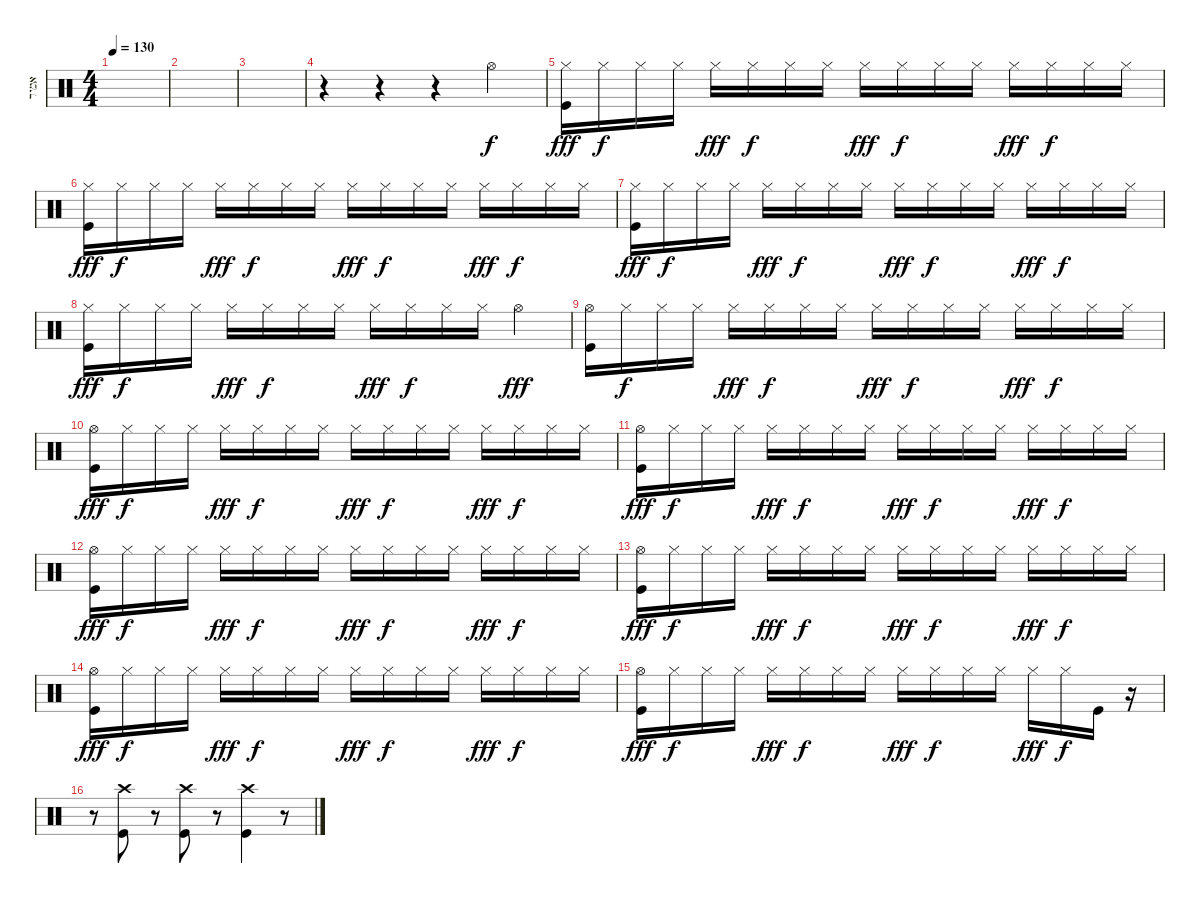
\track ("אמיר" "אמיר") {instrument percussion}
\staff {score}
\articulation defaults
\ts (4 4)
\tempo 130
\clef neutral
\ks c
|
|
|
r.4 r.4 r.4 "Hi-Hat (open)".4 |
("Hi-Hat (closed)" "Kick (hit)").16{dy fff} "Hi-Hat (closed)".16{dy f} "Hi-Hat (closed)".16 "Hi-Hat (closed)".16 "Hi-Hat (closed)".16{dy fff} "Hi-Hat (closed)".16{dy f} "Hi-Hat (closed)".16 "Hi-Hat (closed)".16 "Hi-Hat (closed)".16{dy fff} "Hi-Hat (closed)".16{dy f} "Hi-Hat (closed)".16 "Hi-Hat (closed)".16 "Hi-Hat (closed)".16{dy fff} "Hi-Hat (closed)".16{dy f} "Hi-Hat (closed)".16 "Hi-Hat (closed)".16 |
("Hi-Hat (closed)" "Kick (hit)").16{dy fff} "Hi-Hat (closed)".16{dy f} "Hi-Hat (closed)".16 "Hi-Hat (closed)".16 "Hi-Hat (closed)".16{dy fff} "Hi-Hat (closed)".16{dy f} "Hi-Hat (closed)".16 "Hi-Hat (closed)".16 "Hi-Hat (closed)".16{dy fff} "Hi-Hat (closed)".16{dy f} "Hi-Hat (closed)".16 "Hi-Hat (closed)".16 "Hi-Hat (closed)".16{dy fff} "Hi-Hat (closed)".16{dy f} "Hi-Hat (closed)".16 "Hi-Hat (closed)".16 |
("Hi-Hat (closed)" "Kick (hit)").16{dy fff} "Hi-Hat (closed)".16{dy f} "Hi-Hat (closed)".16 "Hi-Hat (closed)".16 "Hi-Hat (closed)".16{dy fff} "Hi-Hat (closed)".16{dy f} "Hi-Hat (closed)".16 "Hi-Hat (closed)".16 "Hi-Hat (closed)".16{dy fff} "Hi-Hat (closed)".16{dy f} "Hi-Hat (closed)".16 "Hi-Hat (closed)".16 "Hi-Hat (closed)".16{dy fff} "Hi-Hat (closed)".16{dy f} "Hi-Hat (closed)".16 "Hi-Hat (closed)".16 |
("Hi-Hat (closed)" "Kick (hit)").16{dy fff} "Hi-Hat (closed)".16{dy f} "Hi-Hat (closed)".16 "Hi-Hat (closed)".16 "Hi-Hat (closed)".16{dy fff} "Hi-Hat (closed)".16{dy f} "Hi-Hat (closed)".16 "Hi-Hat (closed)".16 "Hi-Hat (closed)".16{dy fff} "Hi-Hat (closed)".16{dy f} "Hi-Hat (closed)".16 "Hi-Hat (closed)".16 "Hi-Hat (open)".4{dy fff} |
("Hi-Hat (open)" "Kick (hit)").16 "Hi-Hat (closed)".16{dy f} "Hi-Hat (closed)".16 "Hi-Hat (closed)".16 "Hi-Hat (closed)".16{dy fff} "Hi-Hat (closed)".16{dy f} "Hi-Hat (closed)".16 "Hi-Hat (closed)".16 "Hi-Hat (closed)".16{dy fff} "Hi-Hat (closed)".16{dy f} "Hi-Hat (closed)".16 "Hi-Hat (closed)".16 "Hi-Hat (closed)".16{dy fff} "Hi-Hat (closed)".16{dy f} "Hi-Hat (closed)".16 "Hi-Hat (closed)".16 |
("Hi-Hat (open)" "Kick (hit)").16{dy fff} "Hi-Hat (closed)".16{dy f} "Hi-Hat (closed)".16 "Hi-Hat (closed)".16 "Hi-Hat (closed)".16{dy fff} "Hi-Hat (closed)".16{dy f} "Hi-Hat (closed)".16 "Hi-Hat (closed)".16 "Hi-Hat (closed)".16{dy fff} "Hi-Hat (closed)".16{dy f} "Hi-Hat (closed)".16 "Hi-Hat (closed)".16 "Hi-Hat (closed)".16{dy fff} "Hi-Hat (closed)".16{dy f} "Hi-Hat (closed)".16 "Hi-Hat (closed)".16 |
("Hi-Hat (open)" "Kick (hit)").16{dy fff} "Hi-Hat (closed)".16{dy f} "Hi-Hat (closed)".16 "Hi-Hat (closed)".16 "Hi-Hat (closed)".16{dy fff} "Hi-Hat (closed)".16{dy f} "Hi-Hat (closed)".16 "Hi-Hat (closed)".16 "Hi-Hat (closed)".16{dy fff} "Hi-Hat (closed)".16{dy f} "Hi-Hat (closed)".16 "Hi-Hat (closed)".16 "Hi-Hat (closed)".16{dy fff} "Hi-Hat (closed)".16{dy f} "Hi-Hat (closed)".16 "Hi-Hat (closed)".16 |
("Hi-Hat (open)" "Kick (hit)").16{dy fff} "Hi-Hat (closed)".16{dy f} "Hi-Hat (closed)".16 "Hi-Hat (closed)".16 "Hi-Hat (closed)".16{dy fff} "Hi-Hat (closed)".16{dy f} "Hi-Hat (closed)".16 "Hi-Hat (closed)".16 "Hi-Hat (closed)".16{dy fff} "Hi-Hat (closed)".16{dy f} "Hi-Hat (closed)".16 "Hi-Hat (closed)".16 "Hi-Hat (closed)".16{dy fff} "Hi-Hat (closed)".16{dy f} "Hi-Hat (closed)".16 "Hi-Hat (closed)".16 |
("Hi-Hat (open)" "Kick (hit)").16{dy fff} "Hi-Hat (closed)".16{dy f} "Hi-Hat (closed)".16 "Hi-Hat (closed)".16 "Hi-Hat (closed)".16{dy fff} "Hi-Hat (closed)".16{dy f} "Hi-Hat (closed)".16 "Hi-Hat (closed)".16 "Hi-Hat (closed)".16{dy fff} "Hi-Hat (closed)".16{dy f} "Hi-Hat (closed)".16 "Hi-Hat (closed)".16 "Hi-Hat (closed)".16{dy fff} "Hi-Hat (closed)".16{dy f} "Hi-Hat (closed)".16 "Hi-Hat (closed)".16 |
("Hi-Hat (open)" "Kick (hit)").16{dy fff} "Hi-Hat (closed)".16{dy f} "Hi-Hat (closed)".16 "Hi-Hat (closed)".16 "Hi-Hat (closed)".16{dy fff} "Hi-Hat (closed)".16{dy f} "Hi-Hat (closed)".16 "Hi-Hat (closed)".16 "Hi-Hat (closed)".16{dy fff} "Hi-Hat (closed)".16{dy f} "Hi-Hat (closed)".16 "Hi-Hat (closed)".16 "Hi-Hat (closed)".16{dy fff} "Hi-Hat (closed)".16{dy f} "Hi-Hat (closed)".16 "Hi-Hat (closed)".16 |
("Hi-Hat (open)" "Kick (hit)").16{dy fff} "Hi-Hat (closed)".16{dy f} "Hi-Hat (closed)".16 "Hi-Hat (closed)".16 "Hi-Hat (closed)".16{dy fff} "Hi-Hat (closed)".16{dy f} "Hi-Hat (closed)".16 "Hi-Hat (closed)".16 "Hi-Hat (closed)".16{dy fff} "Hi-Hat (closed)".16{dy f} "Hi-Hat (closed)".16 "Hi-Hat (closed)".16 "Hi-Hat (closed)".16{dy fff} "Hi-Hat (closed)".16{dy f} "Kick (hit)".16 r.16 |
r.8 ("Crash high (hit)" "Kick (hit)").8 r.8 ("Crash high (hit)" "Kick (hit)").8 r.8 ("Crash high (hit)" "Kick (hit)").4 r.8
